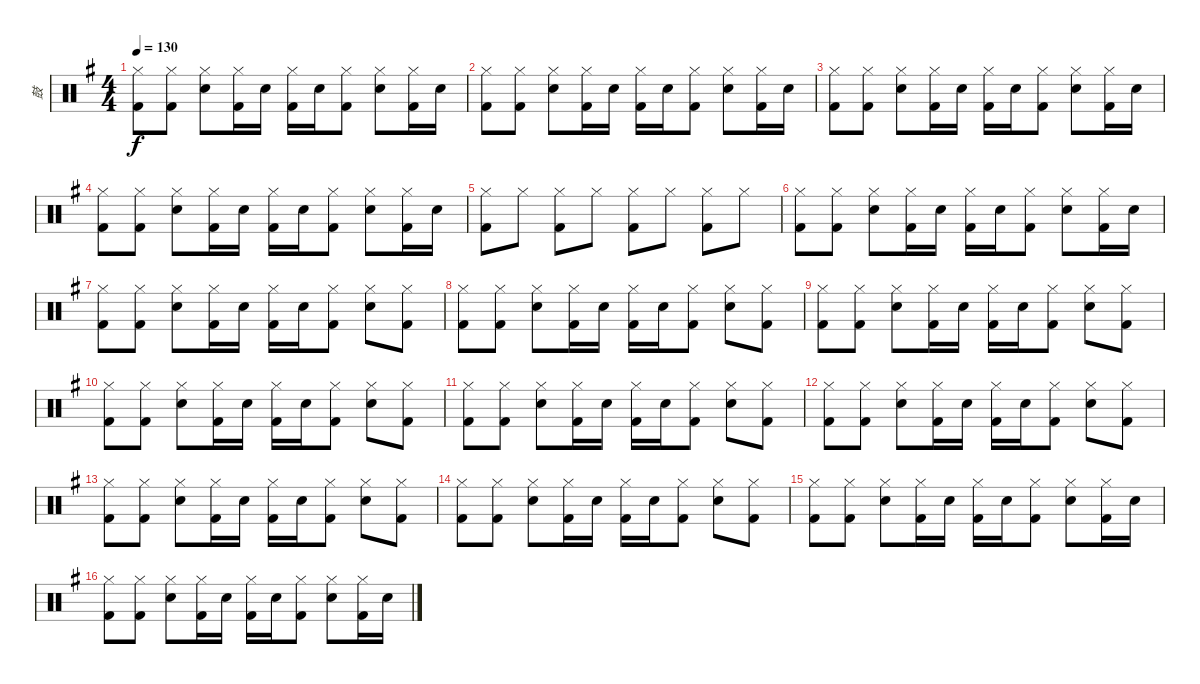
\track ("鼓" "鼓") {instrument percussion}
\staff {score}
\articulation defaults
\ts (4 4)
\tempo 130
\clef neutral
\ks g
("Hi-Hat (closed)" "Kick (hit) 2").8{dy f} ("Hi-Hat (closed)" "Kick (hit) 2").8 ("Hi-Hat (closed)" "Snare (hit) 2").8 ("Hi-Hat (closed)" "Kick (hit) 2").16 "Snare (hit) 2".16 ("Hi-Hat (closed)" "Kick (hit) 2").16 "Snare (hit) 2".16 ("Hi-Hat (closed)" "Kick (hit) 2").8 ("Hi-Hat (closed)" "Snare (hit) 2").8 ("Hi-Hat (closed)" "Kick (hit) 2").16 "Snare (hit) 2".16 |
("Hi-Hat (closed)" "Kick (hit) 2").8 ("Hi-Hat (closed)" "Kick (hit) 2").8 ("Hi-Hat (closed)" "Snare (hit) 2").8 ("Hi-Hat (closed)" "Kick (hit) 2").16 "Snare (hit) 2".16 ("Hi-Hat (closed)" "Kick (hit) 2").16 "Snare (hit) 2".16 ("Hi-Hat (closed)" "Kick (hit) 2").8 ("Hi-Hat (closed)" "Snare (hit) 2").8 ("Hi-Hat (closed)" "Kick (hit) 2").16 "Snare (hit) 2".16 |
("Hi-Hat (closed)" "Kick (hit) 2").8 ("Hi-Hat (closed)" "Kick (hit) 2").8 ("Hi-Hat (closed)" "Snare (hit) 2").8 ("Hi-Hat (closed)" "Kick (hit) 2").16 "Snare (hit) 2".16 ("Hi-Hat (closed)" "Kick (hit) 2").16 "Snare (hit) 2".16 ("Hi-Hat (closed)" "Kick (hit) 2").8 ("Hi-Hat (closed)" "Snare (hit) 2").8 ("Hi-Hat (closed)" "Kick (hit) 2").16 "Snare (hit) 2".16 |
("Hi-Hat (closed)" "Kick (hit) 2").8 ("Hi-Hat (closed)" "Kick (hit) 2").8 ("Hi-Hat (closed)" "Snare (hit) 2").8 ("Hi-Hat (closed)" "Kick (hit) 2").16 "Snare (hit) 2".16 ("Hi-Hat (closed)" "Kick (hit) 2").16 "Snare (hit) 2".16 ("Hi-Hat (closed)" "Kick (hit) 2").8 ("Hi-Hat (closed)" "Snare (hit) 2").8 ("Hi-Hat (closed)" "Kick (hit) 2").16 "Snare (hit) 2".16 |
("Hi-Hat (closed)" "Kick (hit) 2").8 "Hi-Hat (closed)".8 ("Hi-Hat (closed)" "Kick (hit) 2").8 "Hi-Hat (closed)".8 ("Hi-Hat (closed)" "Kick (hit) 2").8 "Hi-Hat (closed)".8 ("Hi-Hat (closed)" "Kick (hit) 2").8 "Hi-Hat (closed)".8 |
("Hi-Hat (closed)" "Kick (hit) 2").8 ("Hi-Hat (closed)" "Kick (hit) 2").8 ("Hi-Hat (closed)" "Snare (hit) 2").8 ("Hi-Hat (closed)" "Kick (hit) 2").16 "Snare (hit) 2".16 ("Hi-Hat (closed)" "Kick (hit) 2").16 "Snare (hit) 2".16 ("Hi-Hat (closed)" "Kick (hit) 2").8 ("Hi-Hat (closed)" "Snare (hit) 2").8 ("Hi-Hat (closed)" "Kick (hit) 2").16 "Snare (hit) 2".16 |
("Hi-Hat (closed)" "Kick (hit) 2").8 ("Hi-Hat (closed)" "Kick (hit) 2").8 ("Hi-Hat (closed)" "Snare (hit) 2").8 ("Hi-Hat (closed)" "Kick (hit) 2").16 "Snare (hit) 2".16 ("Hi-Hat (closed)" "Kick (hit) 2").16 "Snare (hit) 2".16 ("Hi-Hat (closed)" "Kick (hit) 2").8 ("Hi-Hat (closed)" "Snare (hit) 2").8 ("Hi-Hat (closed)" "Kick (hit) 2").8 |
("Hi-Hat (closed)" "Kick (hit) 2").8 ("Hi-Hat (closed)" "Kick (hit) 2").8 ("Hi-Hat (closed)" "Snare (hit) 2").8 ("Hi-Hat (closed)" "Kick (hit) 2").16 "Snare (hit) 2".16 ("Hi-Hat (closed)" "Kick (hit) 2").16 "Snare (hit) 2".16 ("Hi-Hat (closed)" "Kick (hit) 2").8 ("Hi-Hat (closed)" "Snare (hit) 2").8 ("Hi-Hat (closed)" "Kick (hit) 2").8 |
("Hi-Hat (closed)" "Kick (hit) 2").8 ("Hi-Hat (closed)" "Kick (hit) 2").8 ("Hi-Hat (closed)" "Snare (hit) 2").8 ("Hi-Hat (closed)" "Kick (hit) 2").16 "Snare (hit) 2".16 ("Hi-Hat (closed)" "Kick (hit) 2").16 "Snare (hit) 2".16 ("Hi-Hat (closed)" "Kick (hit) 2").8 ("Hi-Hat (closed)" "Snare (hit) 2").8 ("Hi-Hat (closed)" "Kick (hit) 2").8 |
("Hi-Hat (closed)" "Kick (hit) 2").8 ("Hi-Hat (closed)" "Kick (hit) 2").8 ("Hi-Hat (closed)" "Snare (hit) 2").8 ("Hi-Hat (closed)" "Kick (hit) 2").16 "Snare (hit) 2".16 ("Hi-Hat (closed)" "Kick (hit) 2").16 "Snare (hit) 2".16 ("Hi-Hat (closed)" "Kick (hit) 2").8 ("Hi-Hat (closed)" "Snare (hit) 2").8 ("Hi-Hat (closed)" "Kick (hit) 2").8 |
("Hi-Hat (closed)" "Kick (hit) 2").8 ("Hi-Hat (closed)" "Kick (hit) 2").8 ("Hi-Hat (closed)" "Snare (hit) 2").8 ("Hi-Hat (closed)" "Kick (hit) 2").16 "Snare (hit) 2".16 ("Hi-Hat (closed)" "Kick (hit) 2").16 "Snare (hit) 2".16 ("Hi-Hat (closed)" "Kick (hit) 2").8 ("Hi-Hat (closed)" "Snare (hit) 2").8 ("Hi-Hat (closed)" "Kick (hit) 2").8 |
("Hi-Hat (closed)" "Kick (hit) 2").8 ("Hi-Hat (closed)" "Kick (hit) 2").8 ("Hi-Hat (closed)" "Snare (hit) 2").8 ("Hi-Hat (closed)" "Kick (hit) 2").16 "Snare (hit) 2".16 ("Hi-Hat (closed)" "Kick (hit) 2").16 "Snare (hit) 2".16 ("Hi-Hat (closed)" "Kick (hit) 2").8 ("Hi-Hat (closed)" "Snare (hit) 2").8 ("Hi-Hat (closed)" "Kick (hit) 2").8 |
("Hi-Hat (closed)" "Kick (hit) 2").8 ("Hi-Hat (closed)" "Kick (hit) 2").8 ("Hi-Hat (closed)" "Snare (hit) 2").8 ("Hi-Hat (closed)" "Kick (hit) 2").16 "Snare (hit) 2".16 ("Hi-Hat (closed)" "Kick (hit) 2").16 "Snare (hit) 2".16 ("Hi-Hat (closed)" "Kick (hit) 2").8 ("Hi-Hat (closed)" "Snare (hit) 2").8 ("Hi-Hat (closed)" "Kick (hit) 2").8 |
("Hi-Hat (closed)" "Kick (hit) 2").8 ("Hi-Hat (closed)" "Kick (hit) 2").8 ("Hi-Hat (closed)" "Snare (hit) 2").8 ("Hi-Hat (closed)" "Kick (hit) 2").16 "Snare (hit) 2".16 ("Hi-Hat (closed)" "Kick (hit) 2").16 "Snare (hit) 2".16 ("Hi-Hat (closed)" "Kick (hit) 2").8 ("Hi-Hat (closed)" "Snare (hit) 2").8 ("Hi-Hat (closed)" "Kick (hit) 2").8 |
("Hi-Hat (closed)" "Kick (hit) 2").8 ("Hi-Hat (closed)" "Kick (hit) 2").8 ("Hi-Hat (closed)" "Snare (hit) 2").8 ("Hi-Hat (closed)" "Kick (hit) 2").16 "Snare (hit) 2".16 ("Hi-Hat (closed)" "Kick (hit) 2").16 "Snare (hit) 2".16 ("Hi-Hat (closed)" "Kick (hit) 2").8 ("Hi-Hat (closed)" "Snare (hit) 2").8 ("Hi-Hat (closed)" "Kick (hit) 2").16 "Snare (hit) 2".16 |
("Hi-Hat (closed)" "Kick (hit) 2").8 ("Hi-Hat (closed)" "Kick (hit) 2").8 ("Hi-Hat (closed)" "Snare (hit) 2").8 ("Hi-Hat (closed)" "Kick (hit) 2").16 "Snare (hit) 2".16 ("Hi-Hat (closed)" "Kick (hit) 2").16 "Snare (hit) 2".16 ("Hi-Hat (closed)" "Kick (hit) 2").8 ("Hi-Hat (closed)" "Snare (hit) 2").8 ("Hi-Hat (closed)" "Kick (hit) 2").16 "Snare (hit) 2".16
